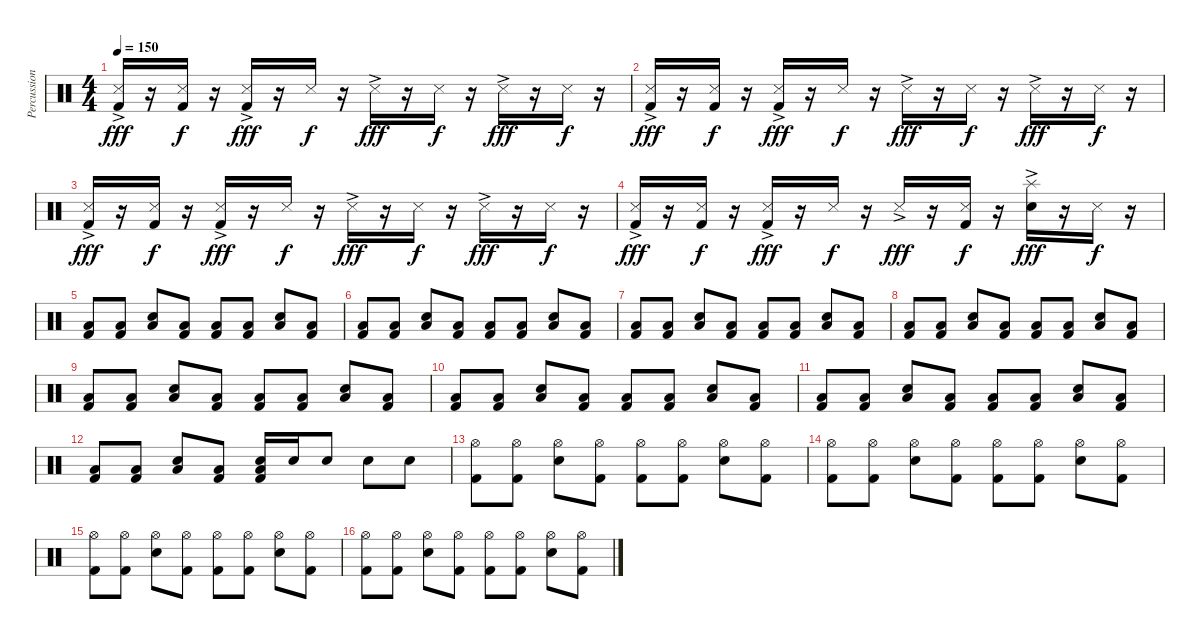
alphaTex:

\track ("Percussion" "Percussion") {instrument percussion}
\staff {score}
\articulation defaults
\ts (4 4)
\tempo 150
\clef neutral
\ks c
("Snare (side stick) 3"{ac} "Kick (hit) 2").16{dy fff} r.16 ("Snare (side stick) 3" "Kick (hit) 2").16{dy f} r.16 ("Snare (side stick) 3"{ac} "Kick (hit) 2").16{dy fff} r.16 "Snare (side stick) 3".16{dy f} r.16 "Snare (side stick) 3"{ac}.16{dy fff} r.16 "Snare (side stick) 3".16{dy f} r.16 "Snare (side stick) 3"{ac}.16{dy fff} r.16 "Snare (side stick) 3".16{dy f} r.16 |
("Snare (side stick) 3"{ac} "Kick (hit) 2").16{dy fff} r.16 ("Snare (side stick) 3" "Kick (hit) 2").16{dy f} r.16 ("Snare (side stick) 3"{ac} "Kick (hit) 2").16{dy fff} r.16 "Snare (side stick) 3".16{dy f} r.16 "Snare (side stick) 3"{ac}.16{dy fff} r.16 "Snare (side stick) 3".16{dy f} r.16 "Snare (side stick) 3"{ac}.16{dy fff} r.16 "Snare (side stick) 3".16{dy f} r.16 |
("Snare (side stick) 3"{ac} "Kick (hit) 2").16{dy fff} r.16 ("Snare (side stick) 3" "Kick (hit) 2").16{dy f} r.16 ("Snare (side stick) 3"{ac} "Kick (hit) 2").16{dy fff} r.16 "Snare (side stick) 3".16{dy f} r.16 "Snare (side stick) 3"{ac}.16{dy fff} r.16 "Snare (side stick) 3".16{dy f} r.16 "Snare (side stick) 3"{ac}.16{dy fff} r.16 "Snare (side stick) 3".16{dy f} r.16 |
("Snare (side stick) 3"{ac} "Kick (hit) 2").16{dy fff} r.16 ("Snare (side stick) 3" "Kick (hit) 2").16{dy f} r.16 ("Snare (side stick) 3"{ac} "Kick (hit) 2").16{dy fff} r.16 "Snare (side stick) 3".16{dy f} r.16 "Snare (side stick) 3"{ac}.16{dy fff} r.16 ("Snare (side stick) 3" "Kick (hit) 2").16{dy f} r.16 ("Splash (hit)" "Electric Snare (hit)"{ac}).16{dy fff} r.16 "Snare (side stick) 3".16{dy f} r.16 |
("Low Floor Tom (hit)" "Kick (hit) 2").8 ("Low Floor Tom (hit)" "Kick (hit) 2").8 ("Low Floor Tom (hit)" "Electric Snare (hit)").8 ("Low Floor Tom (hit)" "Kick (hit) 2").8 ("Low Floor Tom (hit)" "Kick (hit) 2").8 ("Low Floor Tom (hit)" "Kick (hit) 2").8 ("Low Floor Tom (hit)" "Electric Snare (hit)").8 ("Low Floor Tom (hit)" "Kick (hit) 2").8 |
("Low Floor Tom (hit)" "Kick (hit) 2").8 ("Low Floor Tom (hit)" "Kick (hit) 2").8 ("Low Floor Tom (hit)" "Electric Snare (hit)").8 ("Low Floor Tom (hit)" "Kick (hit) 2").8 ("Low Floor Tom (hit)" "Kick (hit) 2").8 ("Low Floor Tom (hit)" "Kick (hit) 2").8 ("Low Floor Tom (hit)" "Electric Snare (hit)").8 ("Low Floor Tom (hit)" "Kick (hit) 2").8 |
("Low Floor Tom (hit)" "Kick (hit) 2").8 ("Low Floor Tom (hit)" "Kick (hit) 2").8 ("Low Floor Tom (hit)" "Electric Snare (hit)").8 ("Low Floor Tom (hit)" "Kick (hit) 2").8 ("Low Floor Tom (hit)" "Kick (hit) 2").8 ("Low Floor Tom (hit)" "Kick (hit) 2").8 ("Low Floor Tom (hit)" "Electric Snare (hit)").8 ("Low Floor Tom (hit)" "Kick (hit) 2").8 |
("Low Floor Tom (hit)" "Kick (hit) 2").8 ("Low Floor Tom (hit)" "Kick (hit) 2").8 ("Low Floor Tom (hit)" "Electric Snare (hit)").8 ("Low Floor Tom (hit)" "Kick (hit) 2").8 ("Low Floor Tom (hit)" "Kick (hit) 2").8 ("Low Floor Tom (hit)" "Kick (hit) 2").8 ("Low Floor Tom (hit)" "Electric Snare (hit)").8 ("Low Floor Tom (hit)" "Kick (hit) 2").8 |
("Low Floor Tom (hit)" "Kick (hit) 2").8 ("Low Floor Tom (hit)" "Kick (hit) 2").8 ("Low Floor Tom (hit)" "Electric Snare (hit)").8 ("Low Floor Tom (hit)" "Kick (hit) 2").8 ("Low Floor Tom (hit)" "Kick (hit) 2").8 ("Low Floor Tom (hit)" "Kick (hit) 2").8 ("Low Floor Tom (hit)" "Electric Snare (hit)").8 ("Low Floor Tom (hit)" "Kick (hit) 2").8 |
("Low Floor Tom (hit)" "Kick (hit) 2").8 ("Low Floor Tom (hit)" "Kick (hit) 2").8 ("Low Floor Tom (hit)" "Electric Snare (hit)").8 ("Low Floor Tom (hit)" "Kick (hit) 2").8 ("Low Floor Tom (hit)" "Kick (hit) 2").8 ("Low Floor Tom (hit)" "Kick (hit) 2").8 ("Low Floor Tom (hit)" "Electric Snare (hit)").8 ("Low Floor Tom (hit)" "Kick (hit) 2").8 |
("Low Floor Tom (hit)" "Kick (hit) 2").8 ("Low Floor Tom (hit)" "Kick (hit) 2").8 ("Low Floor Tom (hit)" "Electric Snare (hit)").8 ("Low Floor Tom (hit)" "Kick (hit) 2").8 ("Low Floor Tom (hit)" "Kick (hit) 2").8 ("Low Floor Tom (hit)" "Kick (hit) 2").8 ("Low Floor Tom (hit)" "Electric Snare (hit)").8 ("Low Floor Tom (hit)" "Kick (hit) 2").8 |
("Low Floor Tom (hit)" "Kick (hit) 2").8 ("Low Floor Tom (hit)" "Kick (hit) 2").8 ("Low Floor Tom (hit)" "Electric Snare (hit)").8 ("Low Floor Tom (hit)" "Kick (hit) 2").8 ("Low Floor Tom (hit)" "Electric Snare (hit)" "Kick (hit) 2").16 "Electric Snare (hit)".16 "Electric Snare (hit)".8 "Electric Snare (hit)".8 "Electric Snare (hit)".8 |
("Hi-Hat (open)" "Kick (hit) 2").8 ("Hi-Hat (open)" "Kick (hit) 2").8 ("Hi-Hat (open)" "Electric Snare (hit)").8 ("Hi-Hat (open)" "Kick (hit) 2").8 ("Hi-Hat (open)" "Kick (hit) 2").8 ("Hi-Hat (open)" "Kick (hit) 2").8 ("Hi-Hat (open)" "Electric Snare (hit)").8 ("Hi-Hat (open)" "Kick (hit) 2").8 |
("Hi-Hat (open)" "Kick (hit) 2").8 ("Hi-Hat (open)" "Kick (hit) 2").8 ("Hi-Hat (open)" "Electric Snare (hit)").8 ("Hi-Hat (open)" "Kick (hit) 2").8 ("Hi-Hat (open)" "Kick (hit) 2").8 ("Hi-Hat (open)" "Kick (hit) 2").8 ("Hi-Hat (open)" "Electric Snare (hit)").8 ("Hi-Hat (open)" "Kick (hit) 2").8 |
("Hi-Hat (open)" "Kick (hit) 2").8 ("Hi-Hat (open)" "Kick (hit) 2").8 ("Hi-Hat (open)" "Electric Snare (hit)").8 ("Hi-Hat (open)" "Kick (hit) 2").8 ("Hi-Hat (open)" "Kick (hit) 2").8 ("Hi-Hat (open)" "Kick (hit) 2").8 ("Hi-Hat (open)" "Electric Snare (hit)").8 ("Hi-Hat (open)" "Kick (hit) 2").8 |
("Hi-Hat (open)" "Kick (hit) 2").8 ("Hi-Hat (open)" "Kick (hit) 2").8 ("Hi-Hat (open)" "Electric Snare (hit)").8 ("Hi-Hat (open)" "Kick (hit) 2").8 ("Hi-Hat (open)" "Kick (hit) 2").8 ("Hi-Hat (open)" "Kick (hit) 2").8 ("Hi-Hat (open)" "Electric Snare (hit)").8 ("Hi-Hat (open)" "Kick (hit) 2").8
